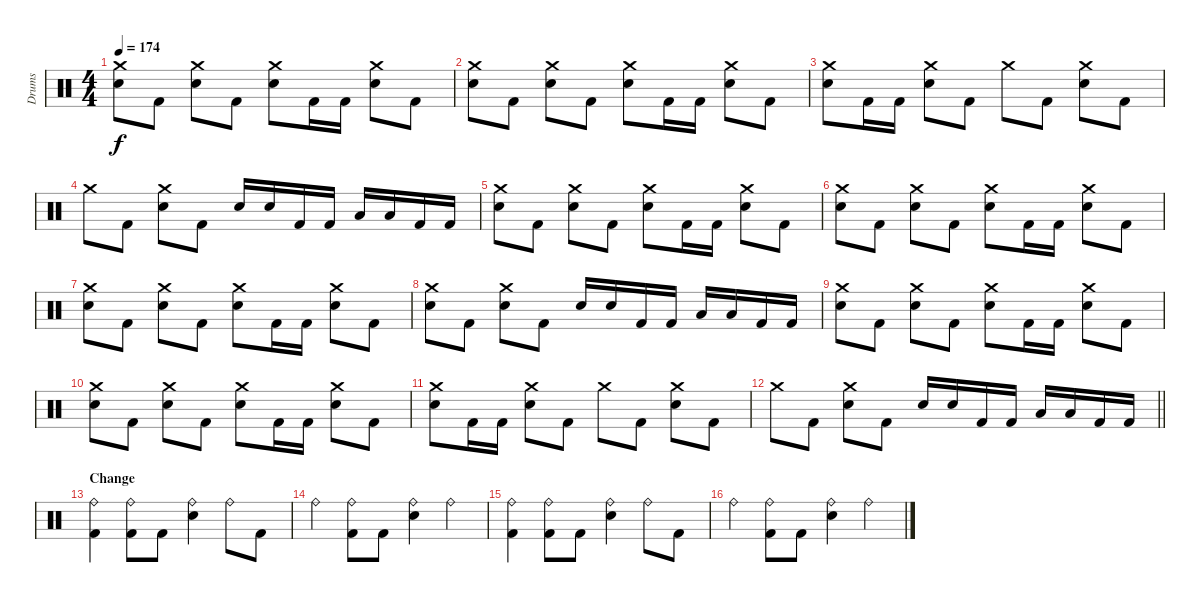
\track ("Drums" "Drums") {instrument percussion}
\staff {score}
\articulation defaults
\ts (4 4)
\tempo 174
\clef neutral
\ks c
("Crash medium (hit)" "Snare (hit) 2").8{dy f} "Kick (hit) 2".8 ("Crash medium (hit)" "Snare (hit) 2").8 "Kick (hit) 2".8 ("Crash medium (hit)" "Snare (hit) 2").8 "Kick (hit) 2".16 "Kick (hit) 2".16 ("Crash medium (hit)" "Snare (hit) 2").8 "Kick (hit) 2".8 |
("Crash medium (hit)" "Snare (hit) 2").8 "Kick (hit) 2".8 ("Crash medium (hit)" "Snare (hit) 2").8 "Kick (hit) 2".8 ("Crash medium (hit)" "Snare (hit) 2").8 "Kick (hit) 2".16 "Kick (hit) 2".16 ("Crash medium (hit)" "Snare (hit) 2").8 "Kick (hit) 2".8 |
("Crash medium (hit)" "Snare (hit) 2").8 "Kick (hit) 2".16 "Kick (hit) 2".16 ("Crash medium (hit)" "Snare (hit) 2").8 "Kick (hit) 2".8 "Crash medium (hit)".8 "Kick (hit) 2".8 ("Crash medium (hit)" "Snare (hit) 2").8 "Kick (hit) 2".8 |
"Crash medium (hit)".8 "Kick (hit) 2".8 ("Crash medium (hit)" "Snare (hit) 2").8 "Kick (hit) 2".8 "Snare (hit) 2".16 "Snare (hit) 2".16 "Kick (hit) 2".16 "Kick (hit) 2".16 "Low Tom (hit)".16 "Low Tom (hit)".16 "Kick (hit) 2".16 "Kick (hit) 2".16 |
("Crash medium (hit)" "Snare (hit) 2").8 "Kick (hit) 2".8 ("Crash medium (hit)" "Snare (hit) 2").8 "Kick (hit) 2".8 ("Crash medium (hit)" "Snare (hit) 2").8 "Kick (hit) 2".16 "Kick (hit) 2".16 ("Crash medium (hit)" "Snare (hit) 2").8 "Kick (hit) 2".8 |
("Crash medium (hit)" "Snare (hit) 2").8 "Kick (hit) 2".8 ("Crash medium (hit)" "Snare (hit) 2").8 "Kick (hit) 2".8 ("Crash medium (hit)" "Snare (hit) 2").8 "Kick (hit) 2".16 "Kick (hit) 2".16 ("Crash medium (hit)" "Snare (hit) 2").8 "Kick (hit) 2".8 |
("Crash medium (hit)" "Snare (hit) 2").8 "Kick (hit) 2".8 ("Crash medium (hit)" "Snare (hit) 2").8 "Kick (hit) 2".8 ("Crash medium (hit)" "Snare (hit) 2").8 "Kick (hit) 2".16 "Kick (hit) 2".16 ("Crash medium (hit)" "Snare (hit) 2").8 "Kick (hit) 2".8 |
("Crash medium (hit)" "Snare (hit) 2").8 "Kick (hit) 2".8 ("Crash medium (hit)" "Snare (hit) 2").8 "Kick (hit) 2".8 "Snare (hit) 2".16 "Snare (hit) 2".16 "Kick (hit) 2".16 "Kick (hit) 2".16 "Low Tom (hit)".16 "Low Tom (hit)".16 "Kick (hit) 2".16 "Kick (hit) 2".16 |
("Crash medium (hit)" "Snare (hit) 2").8 "Kick (hit) 2".8 ("Crash medium (hit)" "Snare (hit) 2").8 "Kick (hit) 2".8 ("Crash medium (hit)" "Snare (hit) 2").8 "Kick (hit) 2".16 "Kick (hit) 2".16 ("Crash medium (hit)" "Snare (hit) 2").8 "Kick (hit) 2".8 |
("Crash medium (hit)" "Snare (hit) 2").8 "Kick (hit) 2".8 ("Crash medium (hit)" "Snare (hit) 2").8 "Kick (hit) 2".8 ("Crash medium (hit)" "Snare (hit) 2").8 "Kick (hit) 2".16 "Kick (hit) 2".16 ("Crash medium (hit)" "Snare (hit) 2").8 "Kick (hit) 2".8 |
("Crash medium (hit)" "Snare (hit) 2").8 "Kick (hit) 2".16 "Kick (hit) 2".16 ("Crash medium (hit)" "Snare (hit) 2").8 "Kick (hit) 2".8 "Crash medium (hit)".8 "Kick (hit) 2".8 ("Crash medium (hit)" "Snare (hit) 2").8 "Kick (hit) 2".8 |
\barLineRight lightlight "Crash medium (hit)".8 "Kick (hit) 2".8
("Crash medium (hit)" "Snare (hit) 2").8 "Kick (hit) 2".8 "Snare (hit) 2".16 "Snare (hit) 2".16 "Kick (hit) 2".16 "Kick (hit) 2".16 "Low Tom (hit)".16 "Low Tom (hit)".16 "Kick (hit) 2".16 "Kick (hit) 2".16 |
\section ("" "Change")
("Ride (bell)" "Kick (hit) 2").4 ("Ride (bell)" "Kick (hit) 2").8 "Kick (hit) 2".8 ("Ride (bell)" "Snare (hit) 2").4 "Ride (bell)".8 "Kick (hit) 2".8 |
"Ride (bell)".4 ("Ride (bell)" "Kick (hit) 2").8 "Kick (hit) 2".8 ("Ride (bell)" "Snare (hit) 2").4 "Ride (bell)".4 |
("Ride (bell)" "Kick (hit) 2").4 ("Ride (bell)" "Kick (hit) 2").8 "Kick (hit) 2".8 ("Ride (bell)" "Snare (hit) 2").4 "Ride (bell)".8 "Kick (hit) 2".8 |
"Ride (bell)".4 ("Ride (bell)" "Kick (hit) 2").8 "Kick (hit) 2".8 ("Ride (bell)" "Snare (hit) 2").4 "Ride (bell)".4
